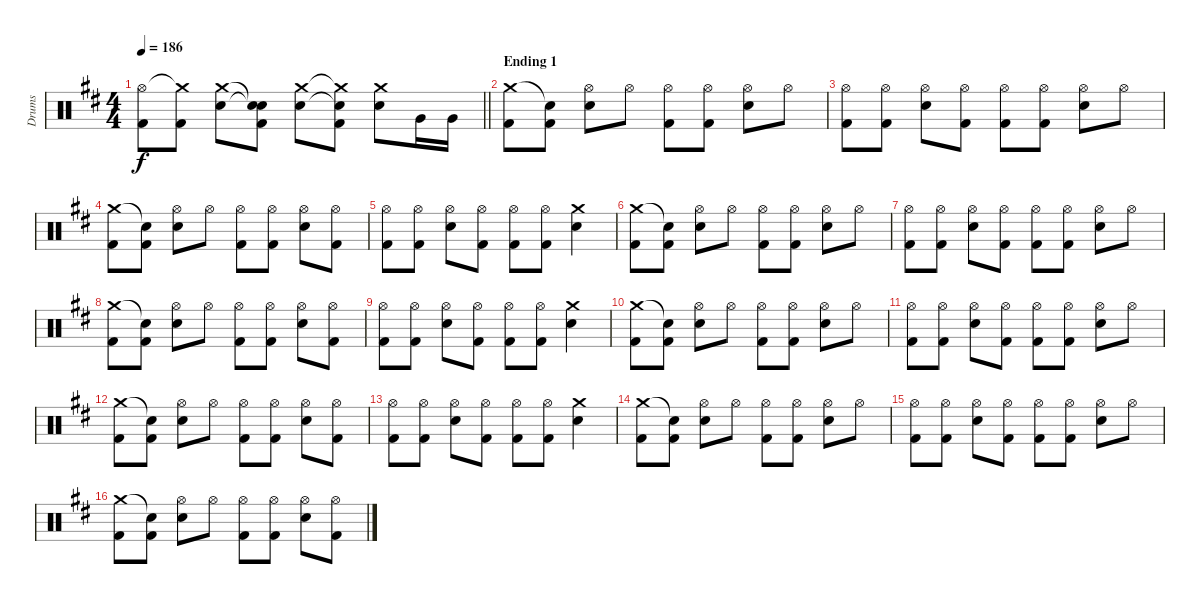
\track ("Drums" "Drums") {instrument percussion}
\staff {score}
\articulation defaults
\ts (4 4)
\tempo 186
\clef neutral
\barLineRight lightlight
\ks d
("Hi-Hat (open)" "Kick (hit) 2").8{dy f} ("Crash medium (hit)"{t} "Kick (hit) 2").8 ("Crash medium (hit)" "Electric Snare (hit)").8 ("Snare (hit)"{t} "Snare (hit)"{t} "Kick (hit) 2").8 ("Crash medium (hit)" "Electric Snare (hit)").8 ("Crash medium (hit)"{t} "Snare (hit)"{t} "Kick (hit) 2").8 ("Crash medium (hit)" "Electric Snare (hit)").8 "Very Low Tom (hit)".16 "Very Low Tom (hit)".16 |
\section ("" "Ending 1")
("Crash medium (hit)" "Kick (hit) 2").8 ("Snare (hit)"{t} "Kick (hit) 2").8 ("Hi-Hat (open)" "Electric Snare (hit)").8 "Hi-Hat (open)".8 ("Hi-Hat (open)" "Kick (hit) 2").8 ("Hi-Hat (open)" "Kick (hit) 2").8 ("Hi-Hat (open)" "Electric Snare (hit)").8 "Hi-Hat (open)".8 |
("Hi-Hat (open)" "Kick (hit) 2").8 ("Hi-Hat (open)" "Kick (hit) 2").8 ("Hi-Hat (open)" "Electric Snare (hit)").8 ("Hi-Hat (open)" "Kick (hit) 2").8 ("Hi-Hat (open)" "Kick (hit) 2").8 ("Hi-Hat (open)" "Kick (hit) 2").8 ("Hi-Hat (open)" "Electric Snare (hit)").8 "Hi-Hat (open)".8 |
("Crash medium (hit)" "Kick (hit) 2").8 ("Snare (hit)"{t} "Kick (hit) 2").8 ("Hi-Hat (open)" "Electric Snare (hit)").8 "Hi-Hat (open)".8 ("Hi-Hat (open)" "Kick (hit) 2").8 ("Hi-Hat (open)" "Kick (hit) 2").8 ("Hi-Hat (open)" "Electric Snare (hit)").8 ("Hi-Hat (open)" "Kick (hit) 2").8 |
("Hi-Hat (open)" "Kick (hit) 2").8 ("Hi-Hat (open)" "Kick (hit) 2").8 ("Hi-Hat (open)" "Electric Snare (hit)").8 ("Hi-Hat (open)" "Kick (hit) 2").8 ("Hi-Hat (open)" "Kick (hit) 2").8 ("Hi-Hat (open)" "Kick (hit) 2").8 ("Crash medium (hit)" "Electric Snare (hit)").4 |
("Crash medium (hit)" "Kick (hit) 2").8 ("Snare (hit)"{t} "Kick (hit) 2").8 ("Hi-Hat (open)" "Electric Snare (hit)").8 "Hi-Hat (open)".8 ("Hi-Hat (open)" "Kick (hit) 2").8 ("Hi-Hat (open)" "Kick (hit) 2").8 ("Hi-Hat (open)" "Electric Snare (hit)").8 "Hi-Hat (open)".8 |
("Hi-Hat (open)" "Kick (hit) 2").8 ("Hi-Hat (open)" "Kick (hit) 2").8 ("Hi-Hat (open)" "Electric Snare (hit)").8 ("Hi-Hat (open)" "Kick (hit) 2").8 ("Hi-Hat (open)" "Kick (hit) 2").8 ("Hi-Hat (open)" "Kick (hit) 2").8 ("Hi-Hat (open)" "Electric Snare (hit)").8 "Hi-Hat (open)".8 |
("Crash medium (hit)" "Kick (hit) 2").8 ("Snare (hit)"{t} "Kick (hit) 2").8 ("Hi-Hat (open)" "Electric Snare (hit)").8 "Hi-Hat (open)".8 ("Hi-Hat (open)" "Kick (hit) 2").8 ("Hi-Hat (open)" "Kick (hit) 2").8 ("Hi-Hat (open)" "Electric Snare (hit)").8 ("Hi-Hat (open)" "Kick (hit) 2").8 |
("Hi-Hat (open)" "Kick (hit) 2").8 ("Hi-Hat (open)" "Kick (hit) 2").8 ("Hi-Hat (open)" "Electric Snare (hit)").8 ("Hi-Hat (open)" "Kick (hit) 2").8 ("Hi-Hat (open)" "Kick (hit) 2").8 ("Hi-Hat (open)" "Kick (hit) 2").8 ("Crash medium (hit)" "Electric Snare (hit)").4 |
("Crash medium (hit)" "Kick (hit) 2").8 ("Snare (hit)"{t} "Kick (hit) 2").8 ("Hi-Hat (open)" "Electric Snare (hit)").8 "Hi-Hat (open)".8 ("Hi-Hat (open)" "Kick (hit) 2").8 ("Hi-Hat (open)" "Kick (hit) 2").8 ("Hi-Hat (open)" "Electric Snare (hit)").8 "Hi-Hat (open)".8 |
("Hi-Hat (open)" "Kick (hit) 2").8 ("Hi-Hat (open)" "Kick (hit) 2").8 ("Hi-Hat (open)" "Electric Snare (hit)").8 ("Hi-Hat (open)" "Kick (hit) 2").8 ("Hi-Hat (open)" "Kick (hit) 2").8 ("Hi-Hat (open)" "Kick (hit) 2").8 ("Hi-Hat (open)" "Electric Snare (hit)").8 "Hi-Hat (open)".8 |
("Crash medium (hit)" "Kick (hit) 2").8 ("Snare (hit)"{t} "Kick (hit) 2").8 ("Hi-Hat (open)" "Electric Snare (hit)").8 "Hi-Hat (open)".8 ("Hi-Hat (open)" "Kick (hit) 2").8 ("Hi-Hat (open)" "Kick (hit) 2").8 ("Hi-Hat (open)" "Electric Snare (hit)").8 ("Hi-Hat (open)" "Kick (hit) 2").8 |
("Hi-Hat (open)" "Kick (hit) 2").8 ("Hi-Hat (open)" "Kick (hit) 2").8 ("Hi-Hat (open)" "Electric Snare (hit)").8 ("Hi-Hat (open)" "Kick (hit) 2").8 ("Hi-Hat (open)" "Kick (hit) 2").8 ("Hi-Hat (open)" "Kick (hit) 2").8 ("Crash medium (hit)" "Electric Snare (hit)").4 |
("Crash medium (hit)" "Kick (hit) 2").8 ("Snare (hit)"{t} "Kick (hit) 2").8 ("Hi-Hat (open)" "Electric Snare (hit)").8 "Hi-Hat (open)".8 ("Hi-Hat (open)" "Kick (hit) 2").8 ("Hi-Hat (open)" "Kick (hit) 2").8 ("Hi-Hat (open)" "Electric Snare (hit)").8 "Hi-Hat (open)".8 |
("Hi-Hat (open)" "Kick (hit) 2").8 ("Hi-Hat (open)" "Kick (hit) 2").8 ("Hi-Hat (open)" "Electric Snare (hit)").8 ("Hi-Hat (open)" "Kick (hit) 2").8 ("Hi-Hat (open)" "Kick (hit) 2").8 ("Hi-Hat (open)" "Kick (hit) 2").8 ("Hi-Hat (open)" "Electric Snare (hit)").8 "Hi-Hat (open)".8 |
("Crash medium (hit)" "Kick (hit) 2").8 ("Snare (hit)"{t} "Kick (hit) 2").8 ("Hi-Hat (open)" "Electric Snare (hit)").8 "Hi-Hat (open)".8 ("Hi-Hat (open)" "Kick (hit) 2").8 ("Hi-Hat (open)" "Kick (hit) 2").8 ("Hi-Hat (open)" "Electric Snare (hit)").8 ("Hi-Hat (open)" "Kick (hit) 2").8
